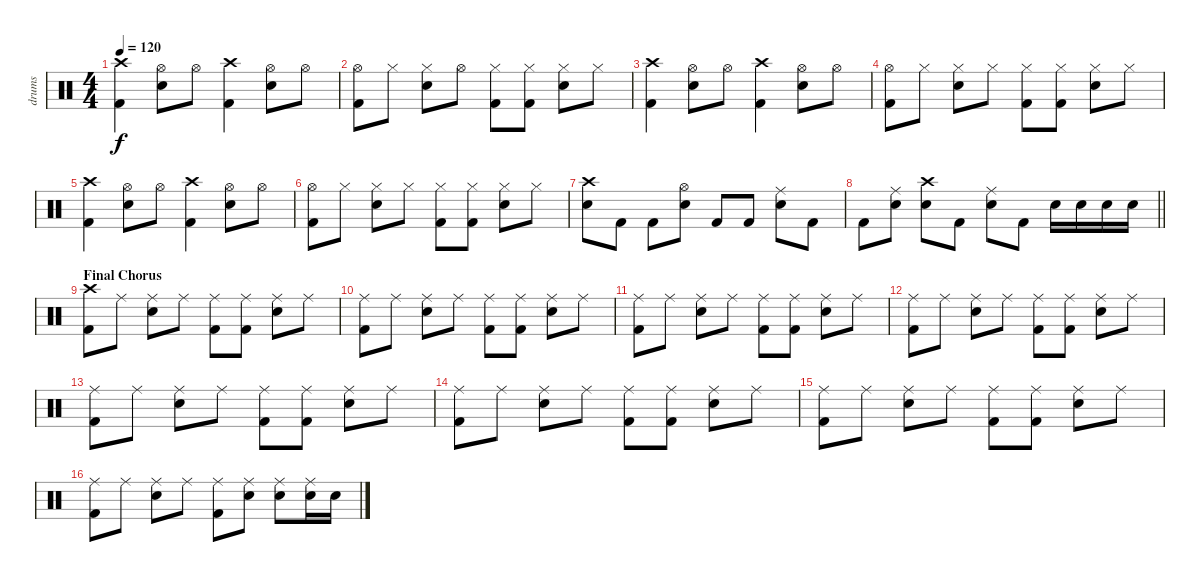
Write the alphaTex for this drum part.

\track ("drums" "drums") {instrument percussion}
\staff {score}
\articulation defaults
\ts (4 4)
\tempo 120
\clef neutral
\ks c
("Crash high (hit)" "Kick (hit) 2").4{dy f} ("Hi-Hat (open)" "Snare (hit) 2").8 "Hi-Hat (open)".8 ("Crash high (hit)" "Kick (hit) 2").4 ("Hi-Hat (open)" "Snare (hit) 2").8 "Hi-Hat (open)".8 |
("Hi-Hat (open)" "Kick (hit) 2").8 "Hi-Hat (closed)".8 ("Hi-Hat (closed)" "Snare (hit) 2").8 "Hi-Hat (open)".8 ("Hi-Hat (closed)" "Kick (hit) 2").8 ("Hi-Hat (closed)" "Kick (hit) 2").8 ("Hi-Hat (closed)" "Snare (hit) 2").8 "Hi-Hat (closed)".8 |
("Crash high (hit)" "Kick (hit) 2").4 ("Hi-Hat (open)" "Snare (hit) 2").8 "Hi-Hat (open)".8 ("Crash high (hit)" "Kick (hit) 2").4 ("Hi-Hat (open)" "Snare (hit) 2").8 "Hi-Hat (open)".8 |
("Hi-Hat (open)" "Kick (hit) 2").8 "Hi-Hat (closed)".8 ("Hi-Hat (closed)" "Snare (hit) 2").8 "Hi-Hat (closed)".8 ("Hi-Hat (closed)" "Kick (hit) 2").8 ("Hi-Hat (closed)" "Kick (hit) 2").8 ("Hi-Hat (closed)" "Snare (hit) 2").8 "Hi-Hat (closed)".8 |
("Crash high (hit)" "Kick (hit) 2").4 ("Hi-Hat (open)" "Snare (hit) 2").8 "Hi-Hat (open)".8 ("Crash high (hit)" "Kick (hit) 2").4 ("Hi-Hat (open)" "Snare (hit) 2").8 "Hi-Hat (open)".8 |
("Hi-Hat (open)" "Kick (hit) 2").8 "Hi-Hat (closed)".8 ("Hi-Hat (closed)" "Snare (hit) 2").8 "Hi-Hat (closed)".8 ("Hi-Hat (closed)" "Kick (hit) 2").8 ("Hi-Hat (closed)" "Kick (hit) 2").8 ("Hi-Hat (closed)" "Snare (hit) 2").8 "Hi-Hat (closed)".8 |
("Crash high (hit)" "Snare (hit) 2").8 "Kick (hit) 2".8 "Kick (hit) 2".8 ("Hi-Hat (open)" "Snare (hit) 2").8 "Kick (hit) 2".8 "Kick (hit) 2".8 ("Ride (middle)" "Snare (hit) 2").8 "Kick (hit) 2".8 |
\barLineRight lightlight "Kick (hit) 2".8
("Ride (middle)" "Snare (hit) 2").8 ("Crash high (hit)" "Snare (hit) 2").8 "Kick (hit) 2".8 ("Ride (middle)" "Snare (hit) 2").8 "Kick (hit) 2".8 "Snare (hit) 2".16 "Snare (hit) 2".16 "Snare (hit) 2".16 "Snare (hit) 2".16 |
\section ("" "Final Chorus")
("Crash high (hit)" "Kick (hit) 2").8 "Ride (middle)".8 ("Ride (middle)" "Snare (hit) 2").8 "Ride (middle)".8 ("Ride (middle)" "Kick (hit) 2").8 ("Ride (middle)" "Kick (hit) 2").8 ("Ride (middle)" "Snare (hit) 2").8 "Ride (middle)".8 |
("Ride (middle)" "Kick (hit) 2").8 "Ride (middle)".8 ("Ride (middle)" "Snare (hit) 2").8 "Ride (middle)".8 ("Ride (middle)" "Kick (hit) 2").8 ("Ride (middle)" "Kick (hit) 2").8 ("Ride (middle)" "Snare (hit) 2").8 "Ride (middle)".8 |
("Ride (middle)" "Kick (hit) 2").8 "Ride (middle)".8 ("Ride (middle)" "Snare (hit) 2").8 "Ride (middle)".8 ("Ride (middle)" "Kick (hit) 2").8 ("Ride (middle)" "Kick (hit) 2").8 ("Ride (middle)" "Snare (hit) 2").8 "Ride (middle)".8 |
("Ride (middle)" "Kick (hit) 2").8 "Ride (middle)".8 ("Ride (middle)" "Snare (hit) 2").8 "Ride (middle)".8 ("Ride (middle)" "Kick (hit) 2").8 ("Ride (middle)" "Kick (hit) 2").8 ("Ride (middle)" "Snare (hit) 2").8 "Ride (middle)".8 |
("Ride (middle)" "Kick (hit) 2").8 "Ride (middle)".8 ("Ride (middle)" "Snare (hit) 2").8 "Ride (middle)".8 ("Ride (middle)" "Kick (hit) 2").8 ("Ride (middle)" "Kick (hit) 2").8 ("Ride (middle)" "Snare (hit) 2").8 "Ride (middle)".8 |
("Ride (middle)" "Kick (hit) 2").8 "Ride (middle)".8 ("Ride (middle)" "Snare (hit) 2").8 "Ride (middle)".8 ("Ride (middle)" "Kick (hit) 2").8 ("Ride (middle)" "Kick (hit) 2").8 ("Ride (middle)" "Snare (hit) 2").8 "Ride (middle)".8 |
("Ride (middle)" "Kick (hit) 2").8 "Ride (middle)".8 ("Ride (middle)" "Snare (hit) 2").8 "Ride (middle)".8 ("Ride (middle)" "Kick (hit) 2").8 ("Ride (middle)" "Kick (hit) 2").8 ("Ride (middle)" "Snare (hit) 2").8 "Ride (middle)".8 |
("Ride (middle)" "Kick (hit) 2").8 "Ride (middle)".8 ("Ride (middle)" "Snare (hit) 2").8 "Ride (middle)".8 ("Ride (middle)" "Kick (hit) 2").8 ("Ride (middle)" "Snare (hit) 2").8 ("Ride (middle)" "Snare (hit) 2").8 ("Ride (middle)" "Snare (hit) 2").16 "Snare (hit) 2".16
